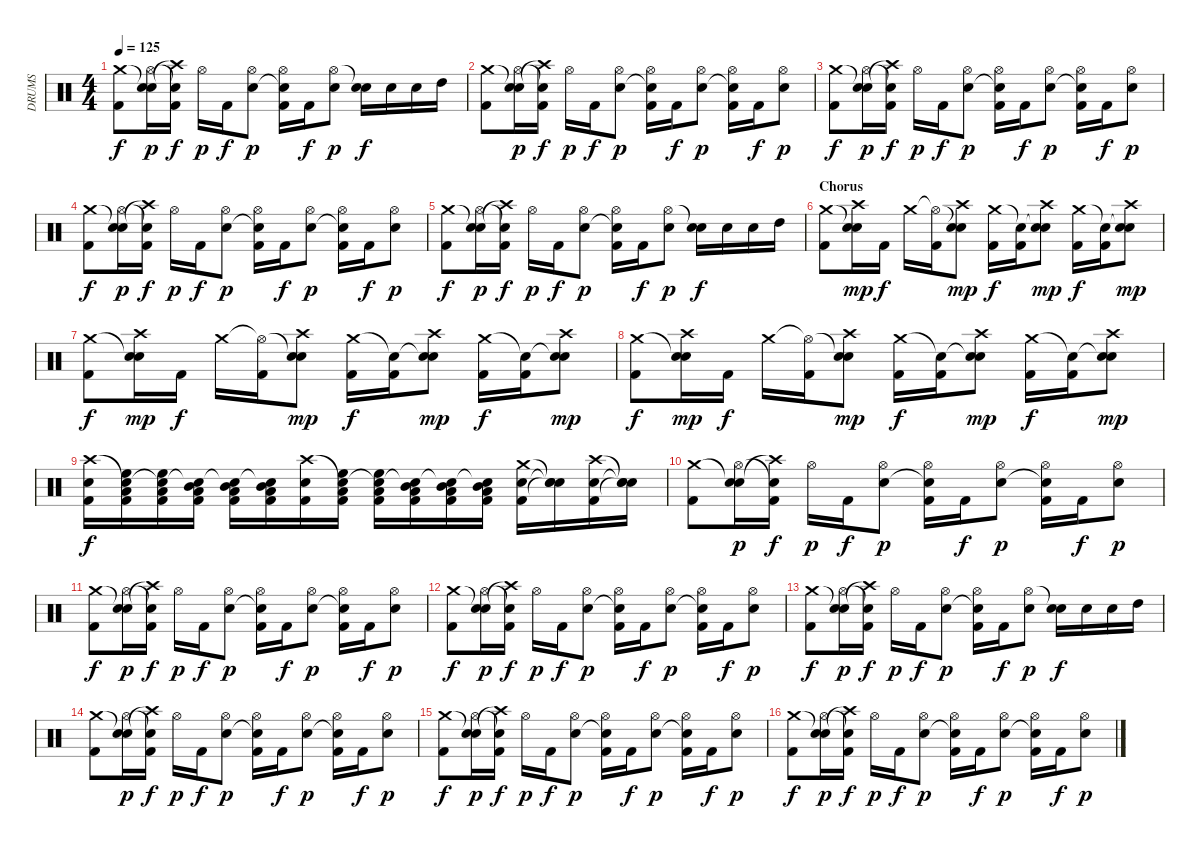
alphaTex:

\track ("DRUMS" "DRUMS") {instrument percussion}
\staff {score}
\articulation defaults
\ts (4 4)
\tempo 125
\clef neutral
\ks c
("Crash medium (hit)" "Kick (hit) 2").8{dy f} ("Snare (hit)"{t} "Hi-Hat (open)" "Electric Snare (hit)").16{dy p} ("Crash high (hit)"{t} "Snare (hit)"{t} "Kick (hit) 2").16{dy f} "Hi-Hat (open)".16{dy p} "Kick (hit) 2".16{dy f} ("Hi-Hat (open)" "Electric Snare (hit)").8{dy p} ("Hi-Hat (open)" "Snare (hit)"{t} "Kick (hit) 2").16 "Kick (hit) 2".16{dy f} ("Hi-Hat (open)" "Electric Snare (hit)").8{dy p} ("Snare (hit)"{t} "Electric Snare (hit)").16{dy f} "Electric Snare (hit)".16 "Electric Snare (hit)".16 "High Tom (hit)".16 |
("Crash medium (hit)" "Kick (hit) 2").8 ("Snare (hit)"{t} "Hi-Hat (open)" "Electric Snare (hit)").16{dy p} ("Crash high (hit)"{t} "Snare (hit)"{t} "Kick (hit) 2").16{dy f} "Hi-Hat (open)".16{dy p} "Kick (hit) 2".16{dy f} ("Hi-Hat (open)" "Electric Snare (hit)").8{dy p} ("Hi-Hat (open)" "Snare (hit)"{t} "Kick (hit) 2").16 "Kick (hit) 2".16{dy f} ("Hi-Hat (open)" "Electric Snare (hit)").8{dy p} ("Hi-Hat (open)" "Snare (hit)"{t} "Kick (hit) 2").16 "Kick (hit) 2".16{dy f} ("Hi-Hat (open)" "Electric Snare (hit)").8{dy p} |
("Crash medium (hit)" "Kick (hit) 2").8{dy f} ("Snare (hit)"{t} "Hi-Hat (open)" "Electric Snare (hit)").16{dy p} ("Crash high (hit)"{t} "Snare (hit)"{t} "Kick (hit) 2").16{dy f} "Hi-Hat (open)".16{dy p} "Kick (hit) 2".16{dy f} ("Hi-Hat (open)" "Electric Snare (hit)").8{dy p} ("Hi-Hat (open)" "Snare (hit)"{t} "Kick (hit) 2").16 "Kick (hit) 2".16{dy f} ("Hi-Hat (open)" "Electric Snare (hit)").8{dy p} ("Hi-Hat (open)" "Snare (hit)"{t} "Kick (hit) 2").16 "Kick (hit) 2".16{dy f} ("Hi-Hat (open)" "Electric Snare (hit)").8{dy p} |
("Crash medium (hit)" "Kick (hit) 2").8{dy f} ("Snare (hit)"{t} "Hi-Hat (open)" "Electric Snare (hit)").16{dy p} ("Crash high (hit)"{t} "Snare (hit)"{t} "Kick (hit) 2").16{dy f} "Hi-Hat (open)".16{dy p} "Kick (hit) 2".16{dy f} ("Hi-Hat (open)" "Electric Snare (hit)").8{dy p} ("Hi-Hat (open)" "Snare (hit)"{t} "Kick (hit) 2").16 "Kick (hit) 2".16{dy f} ("Hi-Hat (open)" "Electric Snare (hit)").8{dy p} ("Hi-Hat (open)" "Snare (hit)"{t} "Kick (hit) 2").16 "Kick (hit) 2".16{dy f} ("Hi-Hat (open)" "Electric Snare (hit)").8{dy p} |
("Crash medium (hit)" "Kick (hit) 2").8{dy f} ("Snare (hit)"{t} "Hi-Hat (open)" "Electric Snare (hit)").16{dy p} ("Crash high (hit)"{t} "Snare (hit)"{t} "Kick (hit) 2").16{dy f} "Hi-Hat (open)".16{dy p} "Kick (hit) 2".16{dy f} ("Hi-Hat (open)" "Electric Snare (hit)").8{dy p} ("Hi-Hat (open)" "Snare (hit)"{t} "Kick (hit) 2").16 "Kick (hit) 2".16{dy f} ("Hi-Hat (open)" "Electric Snare (hit)").8{dy p} ("Snare (hit)"{t} "Electric Snare (hit)").16{dy f} "Electric Snare (hit)".16 "Electric Snare (hit)".16 "High Tom (hit)".16 |
\section ("" "Chorus")
("Crash medium (hit)" "Kick (hit) 2").8 ("Snare (hit)"{t} "Crash high (hit)" "Electric Snare (hit)").16{dy mp} "Kick (hit) 2".16{dy f} "Crash medium (hit)".16 ("Hi-Hat (open)"{t} "Kick (hit) 2").16 ("Snare (hit)"{t} "Crash high (hit)" "Electric Snare (hit)").8{dy mp} ("Crash medium (hit)" "Kick (hit) 2").16{dy f} ("Snare (hit)"{t} "Kick (hit) 2").16 ("Snare (hit)"{t} "Crash high (hit)" "Electric Snare (hit)").8{dy mp} ("Crash medium (hit)" "Kick (hit) 2").16{dy f} ("Snare (hit)"{t} "Kick (hit) 2").16 ("Snare (hit)"{t} "Crash high (hit)" "Electric Snare (hit)").8{dy mp} |
("Crash medium (hit)" "Kick (hit) 2").8{dy f} ("Snare (hit)"{t} "Crash high (hit)" "Electric Snare (hit)").16{dy mp} "Kick (hit) 2".16{dy f} "Crash medium (hit)".16 ("Hi-Hat (open)"{t} "Kick (hit) 2").16 ("Snare (hit)"{t} "Crash high (hit)" "Electric Snare (hit)").8{dy mp} ("Crash medium (hit)" "Kick (hit) 2").16{dy f} ("Snare (hit)"{t} "Kick (hit) 2").16 ("Snare (hit)"{t} "Crash high (hit)" "Electric Snare (hit)").8{dy mp} ("Crash medium (hit)" "Kick (hit) 2").16{dy f} ("Snare (hit)"{t} "Kick (hit) 2").16 ("Snare (hit)"{t} "Crash high (hit)" "Electric Snare (hit)").8{dy mp} |
("Crash medium (hit)" "Kick (hit) 2").8{dy f} ("Snare (hit)"{t} "Crash high (hit)" "Electric Snare (hit)").16{dy mp} "Kick (hit) 2".16{dy f} "Crash medium (hit)".16 ("Hi-Hat (open)"{t} "Kick (hit) 2").16 ("Snare (hit)"{t} "Crash high (hit)" "Electric Snare (hit)").8{dy mp} ("Crash medium (hit)" "Kick (hit) 2").16{dy f} ("Snare (hit)"{t} "Kick (hit) 2").16 ("Snare (hit)"{t} "Crash high (hit)" "Electric Snare (hit)").8{dy mp} ("Crash medium (hit)" "Kick (hit) 2").16{dy f} ("Snare (hit)"{t} "Kick (hit) 2").16 ("Snare (hit)"{t} "Crash high (hit)" "Electric Snare (hit)").8{dy mp} |
("Crash high (hit)" "Electric Snare (hit)" "Kick (hit) 2").16{dy f} ("Snare (hit)"{t} "Low Tom (hit)" "High Floor Tom (hit)" "Kick (hit) 2").16 ("Snare (hit)"{t} "Low Tom (hit)" "High Floor Tom (hit)" "Kick (hit) 2").16 ("Snare (hit)"{t} "Low Floor Tom (hit)" "Mid Tom (hit)" "Kick (hit) 2").16 ("Snare (hit)"{t} "Low Floor Tom (hit)" "Mid Tom (hit)" "Kick (hit) 2").16 ("Snare (hit)"{t} "Low Floor Tom (hit)" "Mid Tom (hit)" "Kick (hit) 2").16 ("Crash high (hit)" "Electric Snare (hit)" "Kick (hit) 2").16 ("Snare (hit)"{t} "Low Tom (hit)" "High Floor Tom (hit)" "Kick (hit) 2").16 ("Snare (hit)"{t} "Low Tom (hit)" "High Floor Tom (hit)" "Kick (hit) 2").16 ("Snare (hit)"{t} "Low Floor Tom (hit)" "Mid Tom (hit)" "Kick (hit) 2").16 ("Snare (hit)"{t} "Low Floor Tom (hit)" "Mid Tom (hit)" "Kick (hit) 2").16 ("Snare (hit)"{t} "Low Floor Tom (hit)" "Mid Tom (hit)" "Kick (hit) 2").16 ("Crash medium (hit)" "Electric Snare (hit)" "Kick (hit) 2").16 ("Snare (hit)"{t} "Snare (hit)"{t} "Snare (hit)"{t}).16 ("Crash high (hit)" "Electric Snare (hit)" "Kick (hit) 2").16 ("Snare (hit)"{t} "Snare (hit)"{t} "Snare (hit)"{t}).16 |
("Crash medium (hit)" "Kick (hit) 2").8 ("Snare (hit)"{t} "Hi-Hat (open)" "Electric Snare (hit)").16{dy p} ("Crash high (hit)"{t} "Snare (hit)"{t} "Kick (hit) 2").16{dy f} "Hi-Hat (open)".16{dy p} "Kick (hit) 2".16{dy f} ("Hi-Hat (open)" "Electric Snare (hit)").8{dy p} ("Hi-Hat (open)" "Snare (hit)"{t} "Kick (hit) 2").16 "Kick (hit) 2".16{dy f} ("Hi-Hat (open)" "Electric Snare (hit)").8{dy p} ("Hi-Hat (open)" "Snare (hit)"{t} "Kick (hit) 2").16 "Kick (hit) 2".16{dy f} ("Hi-Hat (open)" "Electric Snare (hit)").8{dy p} |
("Crash medium (hit)" "Kick (hit) 2").8{dy f} ("Snare (hit)"{t} "Hi-Hat (open)" "Electric Snare (hit)").16{dy p} ("Crash high (hit)"{t} "Snare (hit)"{t} "Kick (hit) 2").16{dy f} "Hi-Hat (open)".16{dy p} "Kick (hit) 2".16{dy f} ("Hi-Hat (open)" "Electric Snare (hit)").8{dy p} ("Hi-Hat (open)" "Snare (hit)"{t} "Kick (hit) 2").16 "Kick (hit) 2".16{dy f} ("Hi-Hat (open)" "Electric Snare (hit)").8{dy p} ("Hi-Hat (open)" "Snare (hit)"{t} "Kick (hit) 2").16 "Kick (hit) 2".16{dy f} ("Hi-Hat (open)" "Electric Snare (hit)").8{dy p} |
("Crash medium (hit)" "Kick (hit) 2").8{dy f} ("Snare (hit)"{t} "Hi-Hat (open)" "Electric Snare (hit)").16{dy p} ("Crash high (hit)"{t} "Snare (hit)"{t} "Kick (hit) 2").16{dy f} "Hi-Hat (open)".16{dy p} "Kick (hit) 2".16{dy f} ("Hi-Hat (open)" "Electric Snare (hit)").8{dy p} ("Hi-Hat (open)" "Snare (hit)"{t} "Kick (hit) 2").16 "Kick (hit) 2".16{dy f} ("Hi-Hat (open)" "Electric Snare (hit)").8{dy p} ("Hi-Hat (open)" "Snare (hit)"{t} "Kick (hit) 2").16 "Kick (hit) 2".16{dy f} ("Hi-Hat (open)" "Electric Snare (hit)").8{dy p} |
("Crash medium (hit)" "Kick (hit) 2").8{dy f} ("Snare (hit)"{t} "Hi-Hat (open)" "Electric Snare (hit)").16{dy p} ("Crash high (hit)"{t} "Snare (hit)"{t} "Kick (hit) 2").16{dy f} "Hi-Hat (open)".16{dy p} "Kick (hit) 2".16{dy f} ("Hi-Hat (open)" "Electric Snare (hit)").8{dy p} ("Hi-Hat (open)" "Snare (hit)"{t} "Kick (hit) 2").16 "Kick (hit) 2".16{dy f} ("Hi-Hat (open)" "Electric Snare (hit)").8{dy p} ("Snare (hit)"{t} "Electric Snare (hit)").16{dy f} "Electric Snare (hit)".16 "Electric Snare (hit)".16 "High Tom (hit)".16 |
("Crash medium (hit)" "Kick (hit) 2").8 ("Snare (hit)"{t} "Hi-Hat (open)" "Electric Snare (hit)").16{dy p} ("Crash high (hit)"{t} "Snare (hit)"{t} "Kick (hit) 2").16{dy f} "Hi-Hat (open)".16{dy p} "Kick (hit) 2".16{dy f} ("Hi-Hat (open)" "Electric Snare (hit)").8{dy p} ("Hi-Hat (open)" "Snare (hit)"{t} "Kick (hit) 2").16 "Kick (hit) 2".16{dy f} ("Hi-Hat (open)" "Electric Snare (hit)").8{dy p} ("Hi-Hat (open)" "Snare (hit)"{t} "Kick (hit) 2").16 "Kick (hit) 2".16{dy f} ("Hi-Hat (open)" "Electric Snare (hit)").8{dy p} |
("Crash medium (hit)" "Kick (hit) 2").8{dy f} ("Snare (hit)"{t} "Hi-Hat (open)" "Electric Snare (hit)").16{dy p} ("Crash high (hit)"{t} "Snare (hit)"{t} "Kick (hit) 2").16{dy f} "Hi-Hat (open)".16{dy p} "Kick (hit) 2".16{dy f} ("Hi-Hat (open)" "Electric Snare (hit)").8{dy p} ("Hi-Hat (open)" "Snare (hit)"{t} "Kick (hit) 2").16 "Kick (hit) 2".16{dy f} ("Hi-Hat (open)" "Electric Snare (hit)").8{dy p} ("Hi-Hat (open)" "Snare (hit)"{t} "Kick (hit) 2").16 "Kick (hit) 2".16{dy f} ("Hi-Hat (open)" "Electric Snare (hit)").8{dy p} |
("Crash medium (hit)" "Kick (hit) 2").8{dy f} ("Snare (hit)"{t} "Hi-Hat (open)" "Electric Snare (hit)").16{dy p} ("Crash high (hit)"{t} "Snare (hit)"{t} "Kick (hit) 2").16{dy f} "Hi-Hat (open)".16{dy p} "Kick (hit) 2".16{dy f} ("Hi-Hat (open)" "Electric Snare (hit)").8{dy p} ("Hi-Hat (open)" "Snare (hit)"{t} "Kick (hit) 2").16 "Kick (hit) 2".16{dy f} ("Hi-Hat (open)" "Electric Snare (hit)").8{dy p} ("Hi-Hat (open)" "Snare (hit)"{t} "Kick (hit) 2").16 "Kick (hit) 2".16{dy f} ("Hi-Hat (open)" "Electric Snare (hit)").8{dy p}
